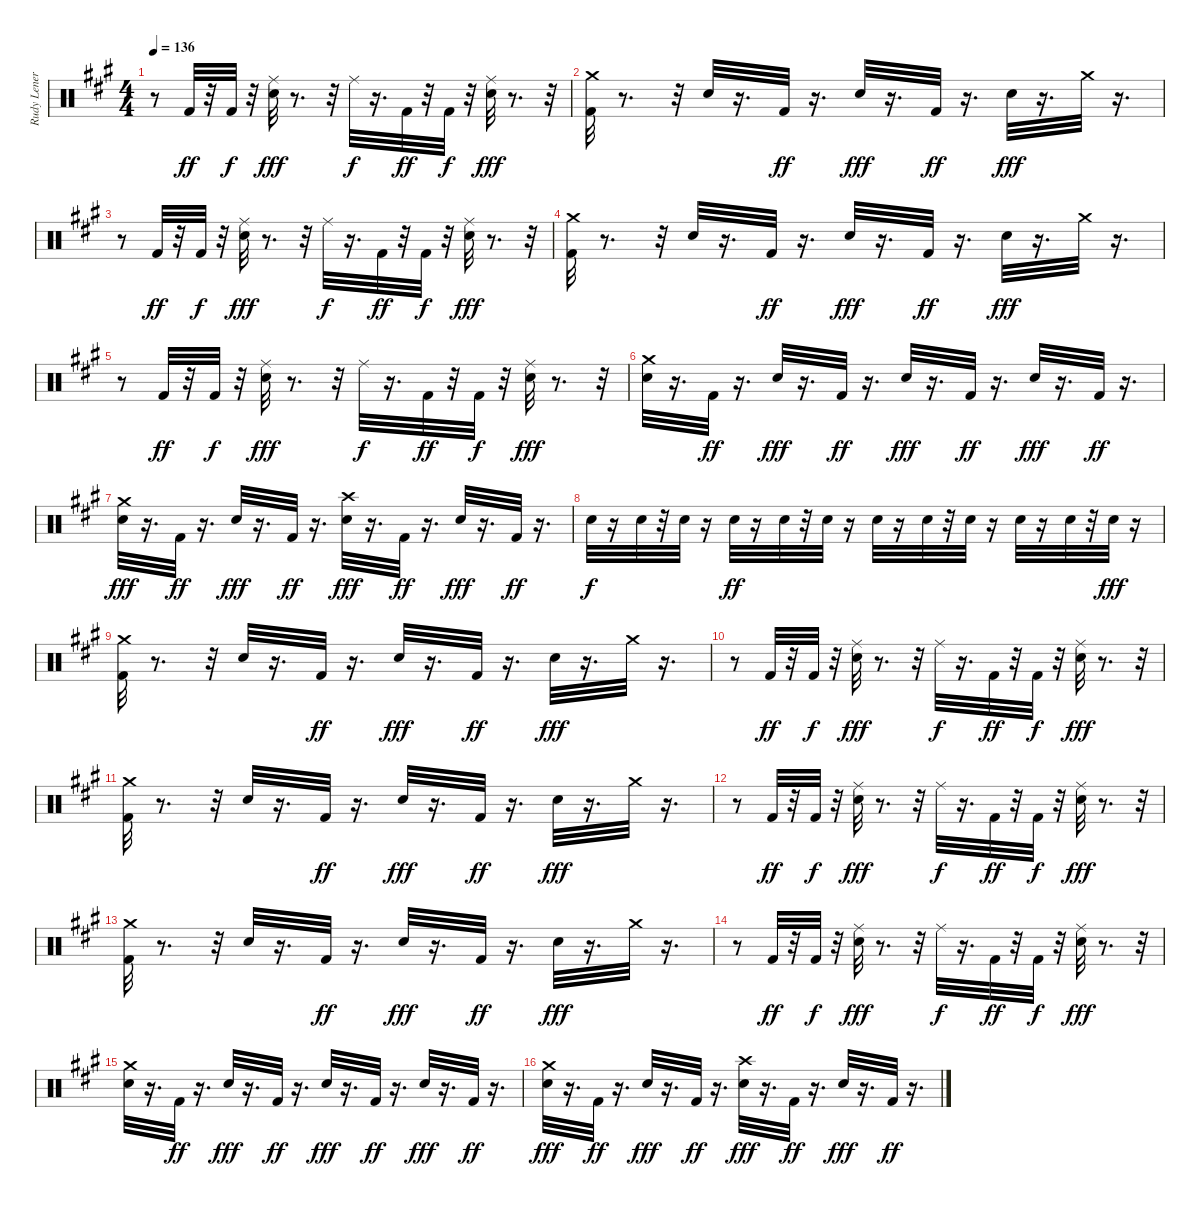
\track ("Rudy Leners" "Rudy Lener") {instrument percussion}
\staff {score}
\articulation defaults
\ts (4 4)
\tempo 136
\clef neutral
\ks a
r.8{dy fff} "Kick (hit) 2".32{dy ff} r.32 "Kick (hit) 2".32{dy f} r.32 ("Ride (middle)" "Snare (hit) 2").32{dy fff} r.8{d} r.32 "Ride (middle)".32{dy f} r.16{d} "Kick (hit) 2".32{dy ff} r.32 "Kick (hit) 2".32{dy f} r.32 ("Ride (middle)" "Snare (hit) 2").32{dy fff} r.8{d} r.32 |
("Kick (hit) 2" "Crash medium (hit)").32 r.8{d} r.32 "Snare (hit) 2".32 r.16{d} "Kick (hit) 2".32{dy ff} r.16{d} "Snare (hit) 2".32{dy fff} r.16{d} "Kick (hit) 2".32{dy ff} r.16{d} "Snare (hit) 2".32{dy fff} r.16{d} "Crash medium (hit)".32 r.16{d} |
r.8 "Kick (hit) 2".32{dy ff} r.32 "Kick (hit) 2".32{dy f} r.32 ("Ride (middle)" "Snare (hit) 2").32{dy fff} r.8{d} r.32 "Ride (middle)".32{dy f} r.16{d} "Kick (hit) 2".32{dy ff} r.32 "Kick (hit) 2".32{dy f} r.32 ("Ride (middle)" "Snare (hit) 2").32{dy fff} r.8{d} r.32 |
("Kick (hit) 2" "Crash medium (hit)").32 r.8{d} r.32 "Snare (hit) 2".32 r.16{d} "Kick (hit) 2".32{dy ff} r.16{d} "Snare (hit) 2".32{dy fff} r.16{d} "Kick (hit) 2".32{dy ff} r.16{d} "Snare (hit) 2".32{dy fff} r.16{d} "Crash medium (hit)".32 r.16{d} |
r.8 "Kick (hit) 2".32{dy ff} r.32 "Kick (hit) 2".32{dy f} r.32 ("Ride (middle)" "Snare (hit) 2").32{dy fff} r.8{d} r.32 "Ride (middle)".32{dy f} r.16{d} "Kick (hit) 2".32{dy ff} r.32 "Kick (hit) 2".32{dy f} r.32 ("Ride (middle)" "Snare (hit) 2").32{dy fff} r.8{d} r.32 |
("Crash medium (hit)" "Snare (hit) 2").32 r.16{d} "Kick (hit) 2".32{dy ff} r.16{d} "Snare (hit) 2".32{dy fff} r.16{d} "Kick (hit) 2".32{dy ff} r.16{d} "Snare (hit) 2".32{dy fff} r.16{d} "Kick (hit) 2".32{dy ff} r.16{d} "Snare (hit) 2".32{dy fff} r.16{d} "Kick (hit) 2".32{dy ff} r.16{d} |
("Snare (hit) 2" "Crash medium (hit)").32{dy fff} r.16{d} "Kick (hit) 2".32{dy ff} r.16{d} "Snare (hit) 2".32{dy fff} r.16{d} "Kick (hit) 2".32{dy ff} r.16{d} ("Crash high (hit)" "Snare (hit) 2").32{dy fff} r.16{d} "Kick (hit) 2".32{dy ff} r.16{d} "Snare (hit) 2".32{dy fff} r.16{d} "Kick (hit) 2".32{dy ff} r.16{d} |
"Snare (hit) 2".32{dy f} r.16 "Snare (hit) 2".32 r.32 "Snare (hit) 2".32 r.16 "Snare (hit) 2".32{dy ff} r.16 "Snare (hit) 2".32 r.32 "Snare (hit) 2".32 r.16 "Snare (hit) 2".32 r.16 "Snare (hit) 2".32 r.32 "Snare (hit) 2".32 r.16 "Snare (hit) 2".32 r.16 "Snare (hit) 2".32 r.32 "Snare (hit) 2".32{dy fff} r.16 |
("Kick (hit) 2" "Crash medium (hit)").32 r.8{d} r.32 "Snare (hit) 2".32 r.16{d} "Kick (hit) 2".32{dy ff} r.16{d} "Snare (hit) 2".32{dy fff} r.16{d} "Kick (hit) 2".32{dy ff} r.16{d} "Snare (hit) 2".32{dy fff} r.16{d} "Crash medium (hit)".32 r.16{d} |
r.8 "Kick (hit) 2".32{dy ff} r.32 "Kick (hit) 2".32{dy f} r.32 ("Ride (middle)" "Snare (hit) 2").32{dy fff} r.8{d} r.32 "Ride (middle)".32{dy f} r.16{d} "Kick (hit) 2".32{dy ff} r.32 "Kick (hit) 2".32{dy f} r.32 ("Ride (middle)" "Snare (hit) 2").32{dy fff} r.8{d} r.32 |
("Kick (hit) 2" "Crash medium (hit)").32 r.8{d} r.32 "Snare (hit) 2".32 r.16{d} "Kick (hit) 2".32{dy ff} r.16{d} "Snare (hit) 2".32{dy fff} r.16{d} "Kick (hit) 2".32{dy ff} r.16{d} "Snare (hit) 2".32{dy fff} r.16{d} "Crash medium (hit)".32 r.16{d} |
r.8 "Kick (hit) 2".32{dy ff} r.32 "Kick (hit) 2".32{dy f} r.32 ("Ride (middle)" "Snare (hit) 2").32{dy fff} r.8{d} r.32 "Ride (middle)".32{dy f} r.16{d} "Kick (hit) 2".32{dy ff} r.32 "Kick (hit) 2".32{dy f} r.32 ("Ride (middle)" "Snare (hit) 2").32{dy fff} r.8{d} r.32 |
("Kick (hit) 2" "Crash medium (hit)").32 r.8{d} r.32 "Snare (hit) 2".32 r.16{d} "Kick (hit) 2".32{dy ff} r.16{d} "Snare (hit) 2".32{dy fff} r.16{d} "Kick (hit) 2".32{dy ff} r.16{d} "Snare (hit) 2".32{dy fff} r.16{d} "Crash medium (hit)".32 r.16{d} |
r.8 "Kick (hit) 2".32{dy ff} r.32 "Kick (hit) 2".32{dy f} r.32 ("Ride (middle)" "Snare (hit) 2").32{dy fff} r.8{d} r.32 "Ride (middle)".32{dy f} r.16{d} "Kick (hit) 2".32{dy ff} r.32 "Kick (hit) 2".32{dy f} r.32 ("Ride (middle)" "Snare (hit) 2").32{dy fff} r.8{d} r.32 |
("Crash medium (hit)" "Snare (hit) 2").32 r.16{d} "Kick (hit) 2".32{dy ff} r.16{d} "Snare (hit) 2".32{dy fff} r.16{d} "Kick (hit) 2".32{dy ff} r.16{d} "Snare (hit) 2".32{dy fff} r.16{d} "Kick (hit) 2".32{dy ff} r.16{d} "Snare (hit) 2".32{dy fff} r.16{d} "Kick (hit) 2".32{dy ff} r.16{d} |
("Snare (hit) 2" "Crash medium (hit)").32{dy fff} r.16{d} "Kick (hit) 2".32{dy ff} r.16{d} "Snare (hit) 2".32{dy fff} r.16{d} "Kick (hit) 2".32{dy ff} r.16{d} ("Crash high (hit)" "Snare (hit) 2").32{dy fff} r.16{d} "Kick (hit) 2".32{dy ff} r.16{d} "Snare (hit) 2".32{dy fff} r.16{d} "Kick (hit) 2".32{dy ff} r.16{d}
